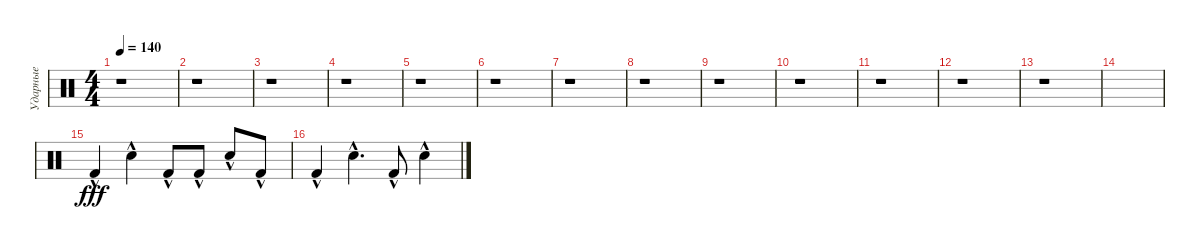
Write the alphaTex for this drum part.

\track ("Ударные" "Ударные") {instrument percussion}
\staff {score}
\articulation defaults
\ts (4 4)
\tempo 140
\clef neutral
\ks c
r.1{dy fff} |
r.1 |
r.1 |
r.1 |
r.1 |
r.1 |
r.1 |
r.1 |
r.1 |
r.1 |
r.1 |
r.1 |
r.1 |
|
"Kick (hit) 2"{hac}.4 "Snare (hit) 2"{hac}.4 "Kick (hit) 2"{hac}.8 "Kick (hit) 2"{hac}.8 "Snare (hit) 2"{hac}.8 "Kick (hit) 2"{hac}.8 |
"Kick (hit) 2"{hac}.4 "Snare (hit) 2"{hac}.4{d} "Kick (hit) 2"{hac}.8 "Snare (hit) 2"{hac}.4
